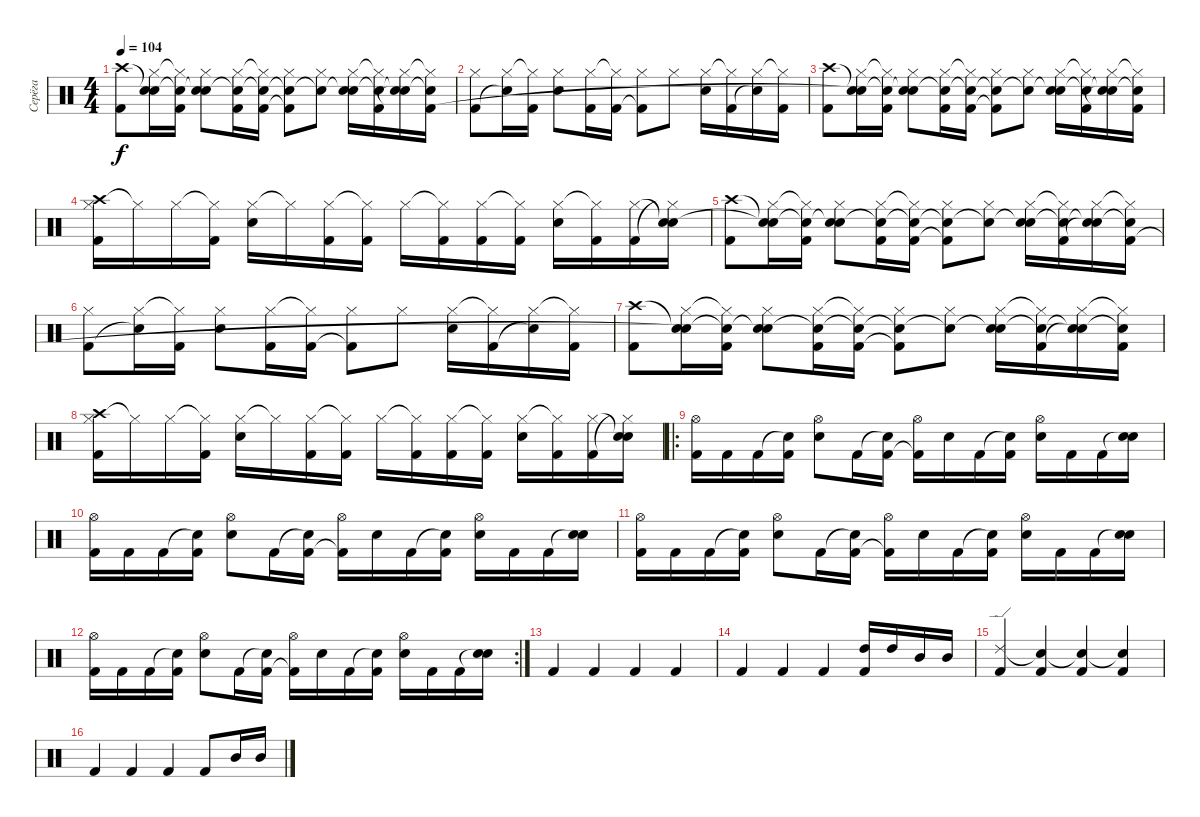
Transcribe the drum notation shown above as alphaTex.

\track ("Серёга" "Серёга") {instrument percussion}
\staff {score}
\articulation defaults
\ts (4 4)
\tempo 104
\clef neutral
\ks c
("Crash high (hit)" "Kick (hit) 2").8{dy f} ("Snare (hit)"{t} "Hi-Hat (closed)" "Snare (hit)").16 ("Snare (hit)"{t} "Hi-Hat (closed)"{t} "Kick (hit) 2").16 ("Snare (hit)"{t} "Hi-Hat (closed)" "Electric Snare (hit)").8 ("Snare (hit)"{t} "Hi-Hat (closed)" "Kick (hit) 2").16 ("Snare (hit)"{t} "Hi-Hat (closed)"{t} "Kick (hit) 2").16 ("Snare (hit)"{t} "Hi-Hat (closed)" "Kick (hit) 2"{t}).8 ("Snare (hit)"{t} "Hi-Hat (closed)").8 ("Snare (hit)"{t} "Hi-Hat (closed)" "Electric Snare (hit)").16 ("Snare (hit)"{t} "Hi-Hat (closed)"{t} "Kick (hit) 2").16 ("Snare (hit)"{t} "Hi-Hat (closed)" "Snare (hit)"{t}).16 ("Snare (hit)"{t} "Hi-Hat (closed)"{t} "Kick (hit) 2").16 |
("Hi-Hat (closed)" "Kick (hit) 2").8 ("Hi-Hat (closed)" "Snare (hit)"{t}).16 ("Hi-Hat (closed)"{t} "Kick (hit) 2").16 ("Hi-Hat (closed)" "Electric Snare (hit)").8 ("Hi-Hat (closed)" "Kick (hit) 2").16 ("Hi-Hat (closed)"{t} "Kick (hit) 2").16 ("Hi-Hat (closed)" "Kick (hit) 2"{t}).8 "Hi-Hat (closed)".8 ("Hi-Hat (closed)" "Electric Snare (hit)").16 ("Hi-Hat (closed)"{t} "Kick (hit) 2").16 ("Hi-Hat (closed)" "Snare (hit)"{t}).16 ("Hi-Hat (closed)"{t} "Kick (hit) 2").16 |
("Crash high (hit)" "Kick (hit) 2").8 ("Snare (hit)"{t} "Hi-Hat (closed)" "Snare (hit)"{t}).16 ("Snare (hit)"{t} "Hi-Hat (closed)"{t} "Kick (hit) 2").16 ("Snare (hit)"{t} "Hi-Hat (closed)" "Electric Snare (hit)").8 ("Snare (hit)"{t} "Hi-Hat (closed)" "Kick (hit) 2").16 ("Snare (hit)"{t} "Hi-Hat (closed)"{t} "Kick (hit) 2").16 ("Snare (hit)"{t} "Hi-Hat (closed)" "Kick (hit) 2"{t}).8 ("Snare (hit)"{t} "Hi-Hat (closed)").8 ("Snare (hit)"{t} "Hi-Hat (closed)" "Electric Snare (hit)").16 ("Snare (hit)"{t} "Hi-Hat (closed)"{t} "Kick (hit) 2").16 ("Snare (hit)"{t} "Hi-Hat (closed)" "Snare (hit)"{t}).16 ("Snare (hit)"{t} "Hi-Hat (closed)"{t} "Kick (hit) 2").16 |
("Crash high (hit)" "Hi-Hat (closed)" "Kick (hit) 2").16 "Hi-Hat (closed)"{t}.16 "Hi-Hat (closed)".16 ("Hi-Hat (closed)"{t} "Kick (hit) 2").16 ("Hi-Hat (closed)" "Electric Snare (hit)").16 "Hi-Hat (closed)"{t}.16 ("Hi-Hat (closed)" "Kick (hit) 2").16 ("Hi-Hat (closed)"{t} "Kick (hit) 2").16 "Hi-Hat (closed)".16 ("Hi-Hat (closed)"{t} "Kick (hit) 2").16 ("Hi-Hat (closed)" "Kick (hit) 2").16 ("Hi-Hat (closed)"{t} "Kick (hit) 2").16 ("Hi-Hat (closed)" "Electric Snare (hit)").16 ("Hi-Hat (closed)"{t} "Kick (hit) 2").16 ("Hi-Hat (closed)" "Kick (hit) 2").16 ("Snare (hit)"{t} "Hi-Hat (closed)"{t} "Electric Snare (hit)").16 |
("Crash high (hit)" "Kick (hit) 2").8 ("Snare (hit)"{t} "Hi-Hat (closed)" "Snare (hit)"{t}).16 ("Snare (hit)"{t} "Hi-Hat (closed)"{t} "Kick (hit) 2").16 ("Snare (hit)"{t} "Hi-Hat (closed)" "Electric Snare (hit)").8 ("Snare (hit)"{t} "Hi-Hat (closed)" "Kick (hit) 2").16 ("Snare (hit)"{t} "Hi-Hat (closed)"{t} "Kick (hit) 2").16 ("Snare (hit)"{t} "Hi-Hat (closed)" "Kick (hit) 2"{t}).8 ("Snare (hit)"{t} "Hi-Hat (closed)").8 ("Snare (hit)"{t} "Hi-Hat (closed)" "Electric Snare (hit)").16 ("Snare (hit)"{t} "Hi-Hat (closed)"{t} "Kick (hit) 2").16 ("Snare (hit)"{t} "Hi-Hat (closed)" "Snare (hit)"{t}).16 ("Snare (hit)"{t} "Hi-Hat (closed)"{t} "Kick (hit) 2").16 |
("Hi-Hat (closed)" "Kick (hit) 2").8 ("Hi-Hat (closed)" "Snare (hit)"{t}).16 ("Hi-Hat (closed)"{t} "Kick (hit) 2").16 ("Hi-Hat (closed)" "Electric Snare (hit)").8 ("Hi-Hat (closed)" "Kick (hit) 2").16 ("Hi-Hat (closed)"{t} "Kick (hit) 2").16 ("Hi-Hat (closed)" "Kick (hit) 2"{t}).8 "Hi-Hat (closed)".8 ("Hi-Hat (closed)" "Electric Snare (hit)").16 ("Hi-Hat (closed)"{t} "Kick (hit) 2").16 ("Hi-Hat (closed)" "Snare (hit)"{t}).16 ("Hi-Hat (closed)"{t} "Kick (hit) 2").16 |
("Crash high (hit)" "Kick (hit) 2").8 ("Snare (hit)"{t} "Hi-Hat (closed)" "Snare (hit)"{t}).16 ("Snare (hit)"{t} "Hi-Hat (closed)"{t} "Kick (hit) 2").16 ("Snare (hit)"{t} "Hi-Hat (closed)" "Electric Snare (hit)").8 ("Snare (hit)"{t} "Hi-Hat (closed)" "Kick (hit) 2").16 ("Snare (hit)"{t} "Hi-Hat (closed)"{t} "Kick (hit) 2").16 ("Snare (hit)"{t} "Hi-Hat (closed)" "Kick (hit) 2"{t}).8 ("Snare (hit)"{t} "Hi-Hat (closed)").8 ("Snare (hit)"{t} "Hi-Hat (closed)" "Electric Snare (hit)").16 ("Snare (hit)"{t} "Hi-Hat (closed)"{t} "Kick (hit) 2").16 ("Snare (hit)"{t} "Hi-Hat (closed)" "Snare (hit)"{t}).16 ("Snare (hit)"{t} "Hi-Hat (closed)"{t} "Kick (hit) 2").16 |
("Crash high (hit)" "Hi-Hat (closed)" "Kick (hit) 2").16 "Hi-Hat (closed)"{t}.16 "Hi-Hat (closed)".16 ("Hi-Hat (closed)"{t} "Kick (hit) 2").16 ("Hi-Hat (closed)" "Electric Snare (hit)").16 "Hi-Hat (closed)"{t}.16 ("Hi-Hat (closed)" "Kick (hit) 2").16 ("Hi-Hat (closed)"{t} "Kick (hit) 2").16 "Hi-Hat (closed)".16 ("Hi-Hat (closed)"{t} "Kick (hit) 2").16 ("Hi-Hat (closed)" "Kick (hit) 2").16 ("Hi-Hat (closed)"{t} "Kick (hit) 2").16 ("Hi-Hat (closed)" "Electric Snare (hit)").16 ("Hi-Hat (closed)"{t} "Kick (hit) 2").16 ("Hi-Hat (closed)" "Kick (hit) 2").16 ("Snare (hit)"{t} "Hi-Hat (closed)"{t} "Electric Snare (hit)").16 |
\ro
("Hi-Hat (open)" "Kick (hit) 2").16 "Kick (hit) 2".16 "Kick (hit) 2".16 ("Snare (hit)"{t} "Kick (hit) 2").16 ("Hi-Hat (open)" "Electric Snare (hit)").8 "Kick (hit) 2".16 ("Snare (hit)"{t} "Kick (hit) 2").16 ("Hi-Hat (open)" "Kick (hit) 2"{t}).16 "Electric Snare (hit)".16 "Kick (hit) 2".16 ("Snare (hit)"{t} "Kick (hit) 2").16 ("Hi-Hat (open)" "Electric Snare (hit)").16 "Kick (hit) 2".16 "Kick (hit) 2".16 ("Snare (hit)"{t} "Electric Snare (hit)").16 |
("Hi-Hat (open)" "Kick (hit) 2").16 "Kick (hit) 2".16 "Kick (hit) 2".16 ("Snare (hit)"{t} "Kick (hit) 2").16 ("Hi-Hat (open)" "Electric Snare (hit)").8 "Kick (hit) 2".16 ("Snare (hit)"{t} "Kick (hit) 2").16 ("Hi-Hat (open)" "Kick (hit) 2"{t}).16 "Electric Snare (hit)".16 "Kick (hit) 2".16 ("Snare (hit)"{t} "Kick (hit) 2").16 ("Hi-Hat (open)" "Electric Snare (hit)").16 "Kick (hit) 2".16 "Kick (hit) 2".16 ("Snare (hit)"{t} "Electric Snare (hit)").16 |
("Hi-Hat (open)" "Kick (hit) 2").16 "Kick (hit) 2".16 "Kick (hit) 2".16 ("Snare (hit)"{t} "Kick (hit) 2").16 ("Hi-Hat (open)" "Electric Snare (hit)").8 "Kick (hit) 2".16 ("Snare (hit)"{t} "Kick (hit) 2").16 ("Hi-Hat (open)" "Kick (hit) 2"{t}).16 "Electric Snare (hit)".16 "Kick (hit) 2".16 ("Snare (hit)"{t} "Kick (hit) 2").16 ("Hi-Hat (open)" "Electric Snare (hit)").16 "Kick (hit) 2".16 "Kick (hit) 2".16 ("Snare (hit)"{t} "Electric Snare (hit)").16 |
\rc 2
("Hi-Hat (open)" "Kick (hit) 2").16 "Kick (hit) 2".16 "Kick (hit) 2".16 ("Snare (hit)"{t} "Kick (hit) 2").16 ("Hi-Hat (open)" "Electric Snare (hit)").8 "Kick (hit) 2".16 ("Snare (hit)"{t} "Kick (hit) 2").16 ("Hi-Hat (open)" "Kick (hit) 2"{t}).16 "Electric Snare (hit)".16 "Kick (hit) 2".16 ("Snare (hit)"{t} "Kick (hit) 2").16 ("Hi-Hat (open)" "Electric Snare (hit)").16 "Kick (hit) 2".16 "Kick (hit) 2".16 ("Snare (hit)"{t} "Electric Snare (hit)").16 |
"Kick (hit) 2".4 "Kick (hit) 2".4 "Kick (hit) 2".4 "Kick (hit) 2".4 |
"Kick (hit) 2".4 "Kick (hit) 2".4 "Kick (hit) 2".4 ("High Tom (hit)" "Kick (hit) 2").16 "High Tom (hit)".16 "Mid Tom (hit)".16 "Mid Tom (hit)".16 |
("Ride (edge) 2" "Kick (hit) 2").4 ("Snare (hit)"{t} "Kick (hit) 2").4 ("Snare (hit)"{t} "Kick (hit) 2").4 ("Snare (hit)"{t} "Kick (hit) 2").4 |
"Kick (hit) 2".4 "Kick (hit) 2".4 "Kick (hit) 2".4 "Kick (hit) 2".8 "Mid Tom (hit)".16 "Mid Tom (hit)".16
